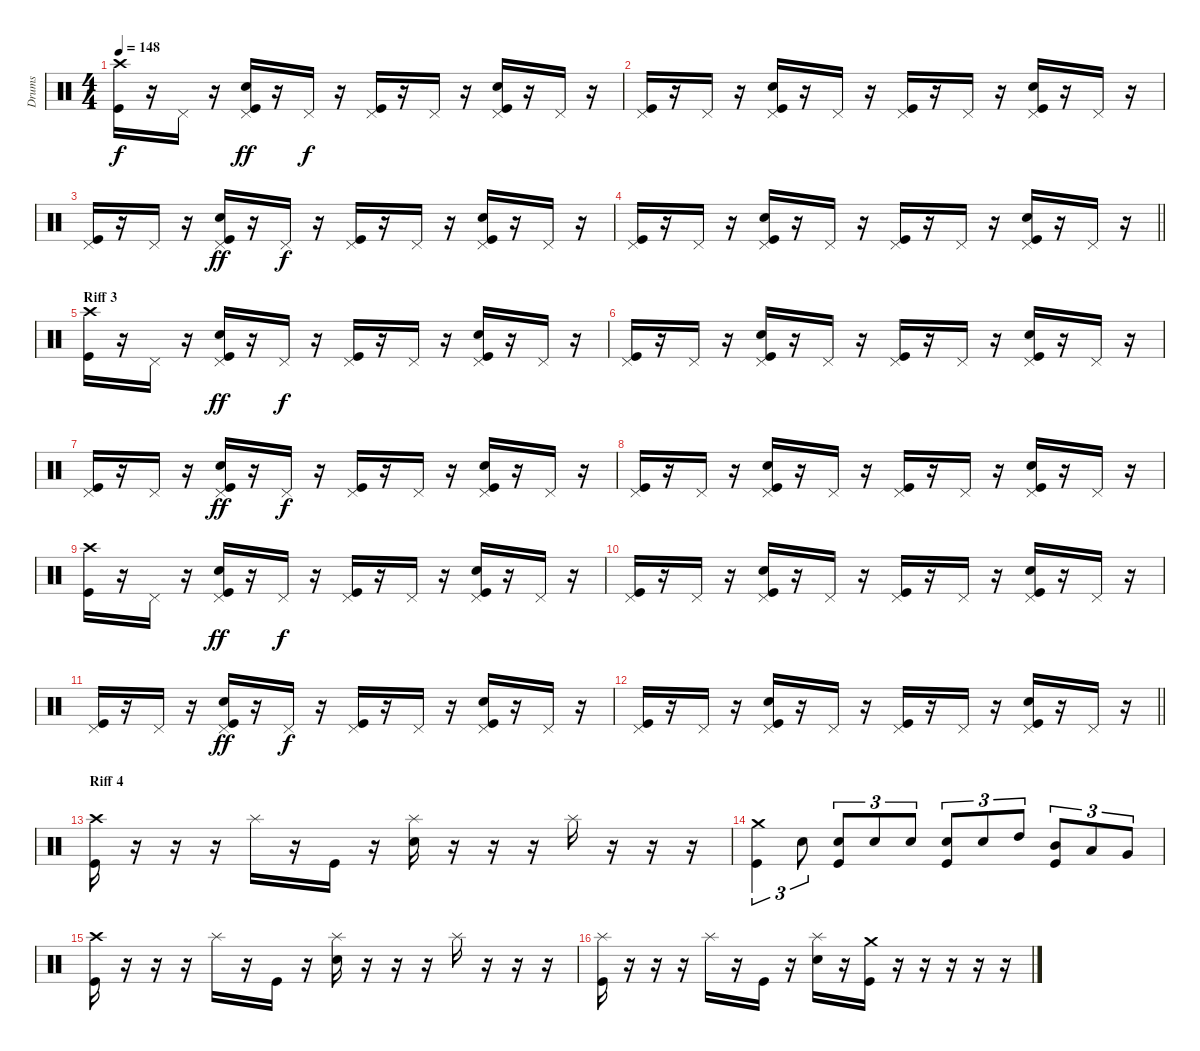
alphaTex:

\track ("Drums" "Drums") {instrument percussion}
\staff {score}
\articulation defaults
\ts (4 4)
\tempo 148
\clef neutral
\ks c
("Crash high (hit)" "Kick (hit)").16{dy f} r.16 "Pedal Hi-Hat (hit)".16 r.16 ("Pedal Hi-Hat (hit)" "Electric Snare (hit)" "Kick (hit)").16{dy ff} r.16 "Pedal Hi-Hat (hit)".16{dy f} r.16 ("Pedal Hi-Hat (hit)" "Kick (hit)").16 r.16 "Pedal Hi-Hat (hit)".16 r.16 ("Pedal Hi-Hat (hit)" "Electric Snare (hit)" "Kick (hit)").16 r.16 "Pedal Hi-Hat (hit)".16 r.16 |
("Pedal Hi-Hat (hit)" "Kick (hit)").16 r.16 "Pedal Hi-Hat (hit)".16 r.16 ("Pedal Hi-Hat (hit)" "Electric Snare (hit)" "Kick (hit)").16 r.16 "Pedal Hi-Hat (hit)".16 r.16 ("Pedal Hi-Hat (hit)" "Kick (hit)").16 r.16 "Pedal Hi-Hat (hit)".16 r.16 ("Pedal Hi-Hat (hit)" "Electric Snare (hit)" "Kick (hit)").16 r.16 "Pedal Hi-Hat (hit)".16 r.16 |
("Pedal Hi-Hat (hit)" "Kick (hit)").16 r.16 "Pedal Hi-Hat (hit)".16 r.16 ("Pedal Hi-Hat (hit)" "Electric Snare (hit)" "Kick (hit)").16{dy ff} r.16 "Pedal Hi-Hat (hit)".16{dy f} r.16 ("Pedal Hi-Hat (hit)" "Kick (hit)").16 r.16 "Pedal Hi-Hat (hit)".16 r.16 ("Pedal Hi-Hat (hit)" "Electric Snare (hit)" "Kick (hit)").16 r.16 "Pedal Hi-Hat (hit)".16 r.16 |
\barLineRight lightlight
("Pedal Hi-Hat (hit)" "Kick (hit)").16 r.16 "Pedal Hi-Hat (hit)".16 r.16 ("Pedal Hi-Hat (hit)" "Electric Snare (hit)" "Kick (hit)").16 r.16 "Pedal Hi-Hat (hit)".16 r.16 ("Pedal Hi-Hat (hit)" "Kick (hit)").16 r.16 "Pedal Hi-Hat (hit)".16 r.16 ("Pedal Hi-Hat (hit)" "Electric Snare (hit)" "Kick (hit)").16 r.16 "Pedal Hi-Hat (hit)".16 r.16 |
\section ("" "Riff 3")
("Crash high (hit)" "Kick (hit)").16 r.16 "Pedal Hi-Hat (hit)".16 r.16 ("Pedal Hi-Hat (hit)" "Electric Snare (hit)" "Kick (hit)").16{dy ff} r.16 "Pedal Hi-Hat (hit)".16{dy f} r.16 ("Pedal Hi-Hat (hit)" "Kick (hit)").16 r.16 "Pedal Hi-Hat (hit)".16 r.16 ("Pedal Hi-Hat (hit)" "Electric Snare (hit)" "Kick (hit)").16 r.16 "Pedal Hi-Hat (hit)".16 r.16 |
("Pedal Hi-Hat (hit)" "Kick (hit)").16 r.16 "Pedal Hi-Hat (hit)".16 r.16 ("Pedal Hi-Hat (hit)" "Electric Snare (hit)" "Kick (hit)").16 r.16 "Pedal Hi-Hat (hit)".16 r.16 ("Pedal Hi-Hat (hit)" "Kick (hit)").16 r.16 "Pedal Hi-Hat (hit)".16 r.16 ("Pedal Hi-Hat (hit)" "Electric Snare (hit)" "Kick (hit)").16 r.16 "Pedal Hi-Hat (hit)".16 r.16 |
("Pedal Hi-Hat (hit)" "Kick (hit)").16 r.16 "Pedal Hi-Hat (hit)".16 r.16 ("Pedal Hi-Hat (hit)" "Electric Snare (hit)" "Kick (hit)").16{dy ff} r.16 "Pedal Hi-Hat (hit)".16{dy f} r.16 ("Pedal Hi-Hat (hit)" "Kick (hit)").16 r.16 "Pedal Hi-Hat (hit)".16 r.16 ("Pedal Hi-Hat (hit)" "Electric Snare (hit)" "Kick (hit)").16 r.16 "Pedal Hi-Hat (hit)".16 r.16 |
("Pedal Hi-Hat (hit)" "Kick (hit)").16 r.16 "Pedal Hi-Hat (hit)".16 r.16 ("Pedal Hi-Hat (hit)" "Electric Snare (hit)" "Kick (hit)").16 r.16 "Pedal Hi-Hat (hit)".16 r.16 ("Pedal Hi-Hat (hit)" "Kick (hit)").16 r.16 "Pedal Hi-Hat (hit)".16 r.16 ("Pedal Hi-Hat (hit)" "Electric Snare (hit)" "Kick (hit)").16 r.16 "Pedal Hi-Hat (hit)".16 r.16 |
("Crash high (hit)" "Kick (hit)").16 r.16 "Pedal Hi-Hat (hit)".16 r.16 ("Pedal Hi-Hat (hit)" "Electric Snare (hit)" "Kick (hit)").16{dy ff} r.16 "Pedal Hi-Hat (hit)".16{dy f} r.16 ("Pedal Hi-Hat (hit)" "Kick (hit)").16 r.16 "Pedal Hi-Hat (hit)".16 r.16 ("Pedal Hi-Hat (hit)" "Electric Snare (hit)" "Kick (hit)").16 r.16 "Pedal Hi-Hat (hit)".16 r.16 |
("Pedal Hi-Hat (hit)" "Kick (hit)").16 r.16 "Pedal Hi-Hat (hit)".16 r.16 ("Pedal Hi-Hat (hit)" "Electric Snare (hit)" "Kick (hit)").16 r.16 "Pedal Hi-Hat (hit)".16 r.16 ("Pedal Hi-Hat (hit)" "Kick (hit)").16 r.16 "Pedal Hi-Hat (hit)".16 r.16 ("Pedal Hi-Hat (hit)" "Electric Snare (hit)" "Kick (hit)").16 r.16 "Pedal Hi-Hat (hit)".16 r.16 |
("Pedal Hi-Hat (hit)" "Kick (hit)").16 r.16 "Pedal Hi-Hat (hit)".16 r.16 ("Pedal Hi-Hat (hit)" "Electric Snare (hit)" "Kick (hit)").16{dy ff} r.16 "Pedal Hi-Hat (hit)".16{dy f} r.16 ("Pedal Hi-Hat (hit)" "Kick (hit)").16 r.16 "Pedal Hi-Hat (hit)".16 r.16 ("Pedal Hi-Hat (hit)" "Electric Snare (hit)" "Kick (hit)").16 r.16 "Pedal Hi-Hat (hit)".16 r.16 |
\barLineRight lightlight
("Pedal Hi-Hat (hit)" "Kick (hit)").16 r.16 "Pedal Hi-Hat (hit)".16 r.16 ("Pedal Hi-Hat (hit)" "Electric Snare (hit)" "Kick (hit)").16 r.16 "Pedal Hi-Hat (hit)".16 r.16 ("Pedal Hi-Hat (hit)" "Kick (hit)").16 r.16 "Pedal Hi-Hat (hit)".16 r.16 ("Pedal Hi-Hat (hit)" "Electric Snare (hit)" "Kick (hit)").16 r.16 "Pedal Hi-Hat (hit)".16 r.16 |
\section ("" "Riff 4")
("Crash high (hit)" "Kick (hit)").16 r.16 r.16 r.16 "Splash (hit)".16 r.16 "Kick (hit)".16 r.16 ("Splash (hit)" "Electric Snare (hit)").16 r.16 r.16 r.16 "Splash (hit)".16 r.16 r.16 r.16 |
("Crash medium (hit)" "Kick (hit)").4{tu (3 2)} "Electric Snare (hit)".8{tu (3 2)} ("Electric Snare (hit)" "Kick (hit)").8{tu (3 2)} "Electric Snare (hit)".8{tu (3 2)} "Electric Snare (hit)".8{tu (3 2)} ("Electric Snare (hit)" "Kick (hit)").8{tu (3 2)} "Electric Snare (hit)".8{tu (3 2)} "High Tom (hit)".8{tu (3 2)} ("Mid Tom (hit)" "Kick (hit)").8{tu (3 2)} "Low Tom (hit)".8{tu (3 2)} "Very Low Tom (hit)".8{tu (3 2)} |
("Crash high (hit)" "Kick (hit)").16 r.16 r.16 r.16 "Splash (hit)".16 r.16 "Kick (hit)".16 r.16 ("Splash (hit)" "Electric Snare (hit)").16 r.16 r.16 r.16 "Splash (hit)".16 r.16 r.16 r.16 |
("Splash (hit)" "Kick (hit)").16 r.16 r.16 r.16 "Splash (hit)".16 r.16 "Kick (hit)".16 r.16 ("Splash (hit)" "Electric Snare (hit)").16 r.16 ("Crash medium (hit)" "Kick (hit)").16 r.16 r.16 r.16 r.16 r.16
